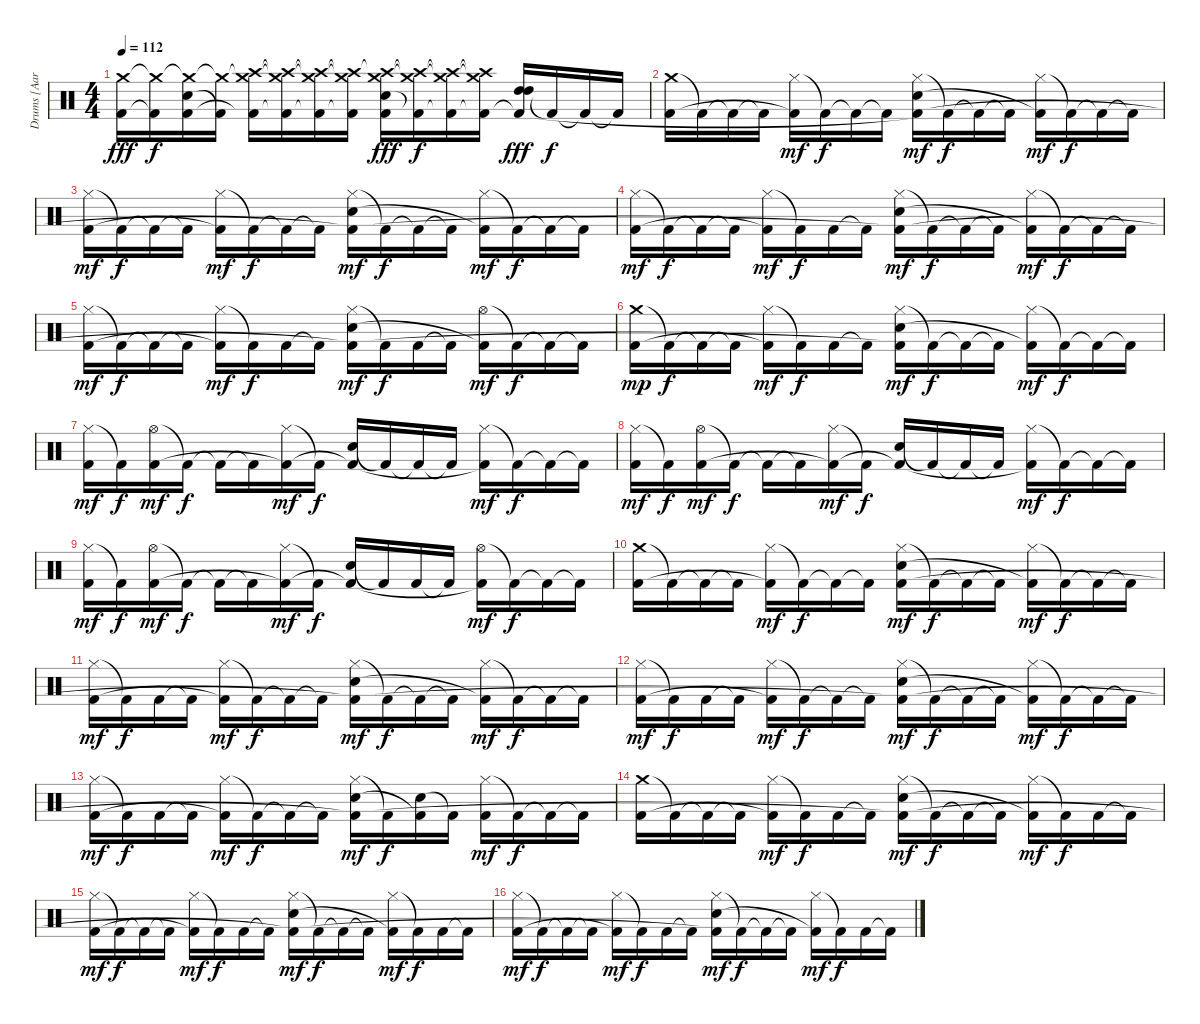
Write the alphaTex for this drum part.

\track ("Drums [Aaron Harris]" "Drums [Aar") {instrument percussion}
\staff {score}
\articulation defaults
\ts (4 4)
\tempo 112
\clef neutral
\ks c
("Crash medium (hit)" "Kick (hit) 2").16{dy fff} ("Crash medium (hit)"{t} "Kick (hit) 2"{t}).16{dy f} ("Crash medium (hit)"{t} "Electric Snare (hit)" "Kick (hit) 2"{t}).16 ("Crash medium (hit)"{t} "Kick (hit) 2"{t}).16 ("Crash medium (hit)"{t} "Crash high (hit)" "Kick (hit) 2"{t}).16 ("Crash medium (hit)"{t} "Crash high (hit)"{t} "Kick (hit) 2"{t}).16 ("Crash medium (hit)"{t} "Crash high (hit)"{t} "Kick (hit) 2"{t}).16 ("Crash medium (hit)"{t} "Crash high (hit)"{t} "Kick (hit) 2"{t}).16 ("Crash medium (hit)" "Crash high (hit)"{t} "Electric Snare (hit)" "Kick (hit) 2"{t}).16{dy fff} ("Crash medium (hit)"{t} "Crash high (hit)"{t} "Kick (hit) 2"{t}).16{dy f} ("Crash medium (hit)"{t} "Crash high (hit)"{t} "Kick (hit) 2"{t}).16 ("Crash medium (hit)"{t} "Crash high (hit)"{t} "Kick (hit) 2"{t}).16 ("High Tom (hit)" "High Tom (hit)" "Kick (hit) 2"{t}).16{dy fff} "Kick (hit) 2"{t}.16{dy f} "Kick (hit) 2"{t}.16 "Kick (hit) 2"{t}.16 |
("Crash medium (hit)" "Kick (hit) 2").16 "Kick (hit) 2"{t}.16 "Kick (hit) 2"{t}.16 "Kick (hit) 2"{t}.16 ("Hi-Hat (closed)" "Kick (hit) 2"{t}).16{dy mf} "Kick (hit) 2"{t}.16{dy f} "Kick (hit) 2"{t}.16 "Kick (hit) 2"{t}.16 ("Hi-Hat (closed)" "Electric Snare (hit)" "Kick (hit) 2"{t}).16{dy mf} "Kick (hit) 2"{t}.16{dy f} "Kick (hit) 2"{t}.16 "Kick (hit) 2"{t}.16 ("Hi-Hat (closed)" "Kick (hit) 2"{t}).16{dy mf} "Kick (hit) 2"{t}.16{dy f} "Kick (hit) 2"{t}.16 "Kick (hit) 2"{t}.16 |
("Hi-Hat (closed)" "Kick (hit) 2").16{dy mf} "Kick (hit) 2"{t}.16{dy f} "Kick (hit) 2"{t}.16 "Kick (hit) 2"{t}.16 ("Hi-Hat (closed)" "Kick (hit) 2"{t}).16{dy mf} "Kick (hit) 2"{t}.16{dy f} "Kick (hit) 2"{t}.16 "Kick (hit) 2"{t}.16 ("Hi-Hat (closed)" "Electric Snare (hit)" "Kick (hit) 2"{t}).16{dy mf} "Kick (hit) 2"{t}.16{dy f} "Kick (hit) 2"{t}.16 "Kick (hit) 2"{t}.16 ("Hi-Hat (closed)" "Kick (hit) 2"{t}).16{dy mf} "Kick (hit) 2"{t}.16{dy f} "Kick (hit) 2"{t}.16 "Kick (hit) 2"{t}.16 |
("Hi-Hat (closed)" "Kick (hit) 2").16{dy mf} "Kick (hit) 2"{t}.16{dy f} "Kick (hit) 2"{t}.16 "Kick (hit) 2"{t}.16 ("Hi-Hat (closed)" "Kick (hit) 2"{t}).16{dy mf} "Kick (hit) 2"{t}.16{dy f} "Kick (hit) 2".16 "Kick (hit) 2"{t}.16 ("Hi-Hat (closed)" "Electric Snare (hit)" "Kick (hit) 2"{t}).16{dy mf} "Kick (hit) 2"{t}.16{dy f} "Kick (hit) 2"{t}.16 "Kick (hit) 2"{t}.16 ("Hi-Hat (closed)" "Kick (hit) 2"{t}).16{dy mf} "Kick (hit) 2"{t}.16{dy f} "Kick (hit) 2"{t}.16 "Kick (hit) 2"{t}.16 |
("Hi-Hat (closed)" "Kick (hit) 2").16{dy mf} "Kick (hit) 2"{t}.16{dy f} "Kick (hit) 2"{t}.16 "Kick (hit) 2"{t}.16 ("Hi-Hat (closed)" "Kick (hit) 2"{t}).16{dy mf} "Kick (hit) 2"{t}.16{dy f} "Kick (hit) 2".16 "Kick (hit) 2"{t}.16 ("Hi-Hat (closed)" "Electric Snare (hit)" "Kick (hit) 2"{t}).16{dy mf} "Kick (hit) 2"{t}.16{dy f} "Kick (hit) 2".16 "Kick (hit) 2"{t}.16 ("Hi-Hat (open)" "Kick (hit) 2"{t}).16{dy mf} "Kick (hit) 2"{t}.16{dy f} "Kick (hit) 2"{t}.16 "Kick (hit) 2"{t}.16 |
("Crash medium (hit)" "Kick (hit) 2").16{dy mp} "Kick (hit) 2"{t}.16{dy f} "Kick (hit) 2"{t}.16 "Kick (hit) 2"{t}.16 ("Hi-Hat (closed)" "Kick (hit) 2"{t}).16{dy mf} "Kick (hit) 2"{t}.16{dy f} "Kick (hit) 2".16 "Kick (hit) 2"{t}.16 ("Hi-Hat (closed)" "Electric Snare (hit)" "Kick (hit) 2"{t}).16{dy mf} "Kick (hit) 2"{t}.16{dy f} "Kick (hit) 2"{t}.16 "Kick (hit) 2"{t}.16 ("Hi-Hat (closed)" "Kick (hit) 2"{t}).16{dy mf} "Kick (hit) 2"{t}.16{dy f} "Kick (hit) 2"{t}.16 "Kick (hit) 2"{t}.16 |
("Hi-Hat (closed)" "Kick (hit) 2").16{dy mf} "Kick (hit) 2"{t}.16{dy f} ("Hi-Hat (open)" "Kick (hit) 2").16{dy mf} "Kick (hit) 2"{t}.16{dy f} "Kick (hit) 2"{t}.16 "Kick (hit) 2"{t}.16 ("Hi-Hat (closed)" "Kick (hit) 2"{t}).16{dy mf} "Kick (hit) 2"{t}.16{dy f} ("Electric Snare (hit)" "Kick (hit) 2"{t}).16 "Kick (hit) 2"{t}.16 "Kick (hit) 2"{t}.16 "Kick (hit) 2"{t}.16 ("Hi-Hat (closed)" "Kick (hit) 2"{t}).16{dy mf} "Kick (hit) 2"{t}.16{dy f} "Kick (hit) 2"{t}.16 "Kick (hit) 2"{t}.16 |
("Hi-Hat (closed)" "Kick (hit) 2").16{dy mf} "Kick (hit) 2"{t}.16{dy f} ("Hi-Hat (open)" "Kick (hit) 2").16{dy mf} "Kick (hit) 2"{t}.16{dy f} "Kick (hit) 2"{t}.16 "Kick (hit) 2"{t}.16 ("Hi-Hat (closed)" "Kick (hit) 2"{t}).16{dy mf} "Kick (hit) 2"{t}.16{dy f} ("Electric Snare (hit)" "Kick (hit) 2"{t}).16 "Kick (hit) 2"{t}.16 "Kick (hit) 2"{t}.16 "Kick (hit) 2"{t}.16 ("Hi-Hat (closed)" "Kick (hit) 2"{t}).16{dy mf} "Kick (hit) 2"{t}.16{dy f} "Kick (hit) 2"{t}.16 "Kick (hit) 2"{t}.16 |
("Hi-Hat (closed)" "Kick (hit) 2").16{dy mf} "Kick (hit) 2"{t}.16{dy f} ("Hi-Hat (open)" "Kick (hit) 2").16{dy mf} "Kick (hit) 2"{t}.16{dy f} "Kick (hit) 2"{t}.16 "Kick (hit) 2"{t}.16 ("Hi-Hat (closed)" "Kick (hit) 2"{t}).16{dy mf} "Kick (hit) 2"{t}.16{dy f} ("Electric Snare (hit)" "Kick (hit) 2"{t}).16 "Kick (hit) 2"{t}.16 "Kick (hit) 2".16 "Kick (hit) 2"{t}.16 ("Hi-Hat (open)" "Kick (hit) 2"{t}).16{dy mf} "Kick (hit) 2"{t}.16{dy f} "Kick (hit) 2"{t}.16 "Kick (hit) 2"{t}.16 |
("Crash medium (hit)" "Kick (hit) 2").16 "Kick (hit) 2"{t}.16 "Kick (hit) 2"{t}.16 "Kick (hit) 2"{t}.16 ("Hi-Hat (closed)" "Kick (hit) 2"{t}).16{dy mf} "Kick (hit) 2"{t}.16{dy f} "Kick (hit) 2"{t}.16 "Kick (hit) 2"{t}.16 ("Hi-Hat (closed)" "Electric Snare (hit)" "Kick (hit) 2").16{dy mf} "Kick (hit) 2"{t}.16{dy f} "Kick (hit) 2"{t}.16 "Kick (hit) 2"{t}.16 ("Hi-Hat (closed)" "Kick (hit) 2"{t}).16{dy mf} "Kick (hit) 2"{t}.16{dy f} "Kick (hit) 2"{t}.16 "Kick (hit) 2"{t}.16 |
("Hi-Hat (closed)" "Kick (hit) 2").16{dy mf} "Kick (hit) 2"{t}.16{dy f} "Kick (hit) 2".16 "Kick (hit) 2"{t}.16 ("Hi-Hat (closed)" "Kick (hit) 2"{t}).16{dy mf} "Kick (hit) 2"{t}.16{dy f} "Kick (hit) 2"{t}.16 "Kick (hit) 2"{t}.16 ("Hi-Hat (closed)" "Electric Snare (hit)" "Kick (hit) 2"{t}).16{dy mf} "Kick (hit) 2"{t}.16{dy f} "Kick (hit) 2"{t}.16 "Kick (hit) 2"{t}.16 ("Hi-Hat (closed)" "Kick (hit) 2"{t}).16{dy mf} "Kick (hit) 2"{t}.16{dy f} "Kick (hit) 2"{t}.16 "Kick (hit) 2"{t}.16 |
("Hi-Hat (closed)" "Kick (hit) 2").16{dy mf} "Kick (hit) 2"{t}.16{dy f} "Kick (hit) 2".16 "Kick (hit) 2"{t}.16 ("Hi-Hat (closed)" "Kick (hit) 2"{t}).16{dy mf} "Kick (hit) 2"{t}.16{dy f} "Kick (hit) 2"{t}.16 "Kick (hit) 2"{t}.16 ("Hi-Hat (closed)" "Electric Snare (hit)" "Kick (hit) 2"{t}).16{dy mf} "Kick (hit) 2"{t}.16{dy f} "Kick (hit) 2"{t}.16 "Kick (hit) 2"{t}.16 ("Hi-Hat (closed)" "Kick (hit) 2"{t}).16{dy mf} "Kick (hit) 2"{t}.16{dy f} "Kick (hit) 2"{t}.16 "Kick (hit) 2"{t}.16 |
("Hi-Hat (closed)" "Kick (hit) 2").16{dy mf} "Kick (hit) 2"{t}.16{dy f} "Kick (hit) 2".16 "Kick (hit) 2"{t}.16 ("Hi-Hat (closed)" "Kick (hit) 2"{t}).16{dy mf} "Kick (hit) 2"{t}.16{dy f} "Kick (hit) 2"{t}.16 "Kick (hit) 2"{t}.16 ("Hi-Hat (closed)" "Electric Snare (hit)" "Kick (hit) 2"{t}).16{dy mf} "Kick (hit) 2"{t}.16{dy f} ("Electric Snare (hit)" "Kick (hit) 2"{t}).16 "Kick (hit) 2"{t}.16 ("Hi-Hat (closed)" "Kick (hit) 2").16{dy mf} "Kick (hit) 2"{t}.16{dy f} "Kick (hit) 2"{t}.16 "Kick (hit) 2"{t}.16 |
("Crash medium (hit)" "Kick (hit) 2").16 "Kick (hit) 2"{t}.16 "Kick (hit) 2"{t}.16 "Kick (hit) 2"{t}.16 ("Hi-Hat (closed)" "Kick (hit) 2"{t}).16{dy mf} "Kick (hit) 2"{t}.16{dy f} "Kick (hit) 2".16 "Kick (hit) 2"{t}.16 ("Hi-Hat (closed)" "Electric Snare (hit)" "Kick (hit) 2"{t}).16{dy mf} "Kick (hit) 2"{t}.16{dy f} "Kick (hit) 2"{t}.16 "Kick (hit) 2"{t}.16 ("Hi-Hat (closed)" "Kick (hit) 2"{t}).16{dy mf} "Kick (hit) 2"{t}.16{dy f} "Kick (hit) 2".16 "Kick (hit) 2"{t}.16 |
("Hi-Hat (closed)" "Kick (hit) 2").16{dy mf} "Kick (hit) 2"{t}.16{dy f} "Kick (hit) 2"{t}.16 "Kick (hit) 2"{t}.16 ("Hi-Hat (closed)" "Kick (hit) 2"{t}).16{dy mf} "Kick (hit) 2"{t}.16{dy f} "Kick (hit) 2".16 "Kick (hit) 2"{t}.16 ("Hi-Hat (closed)" "Electric Snare (hit)" "Kick (hit) 2"{t}).16{dy mf} "Kick (hit) 2"{t}.16{dy f} "Kick (hit) 2"{t}.16 "Kick (hit) 2"{t}.16 ("Hi-Hat (closed)" "Kick (hit) 2"{t}).16{dy mf} "Kick (hit) 2"{t}.16{dy f} "Kick (hit) 2".16 "Kick (hit) 2"{t}.16 |
("Hi-Hat (closed)" "Kick (hit) 2").16{dy mf} "Kick (hit) 2"{t}.16{dy f} "Kick (hit) 2"{t}.16 "Kick (hit) 2"{t}.16 ("Hi-Hat (closed)" "Kick (hit) 2"{t}).16{dy mf} "Kick (hit) 2"{t}.16{dy f} "Kick (hit) 2".16 "Kick (hit) 2"{t}.16 ("Hi-Hat (closed)" "Electric Snare (hit)" "Kick (hit) 2"{t}).16{dy mf} "Kick (hit) 2"{t}.16{dy f} "Kick (hit) 2"{t}.16 "Kick (hit) 2"{t}.16 ("Hi-Hat (closed)" "Kick (hit) 2"{t}).16{dy mf} "Kick (hit) 2"{t}.16{dy f} "Kick (hit) 2".16 "Kick (hit) 2"{t}.16
